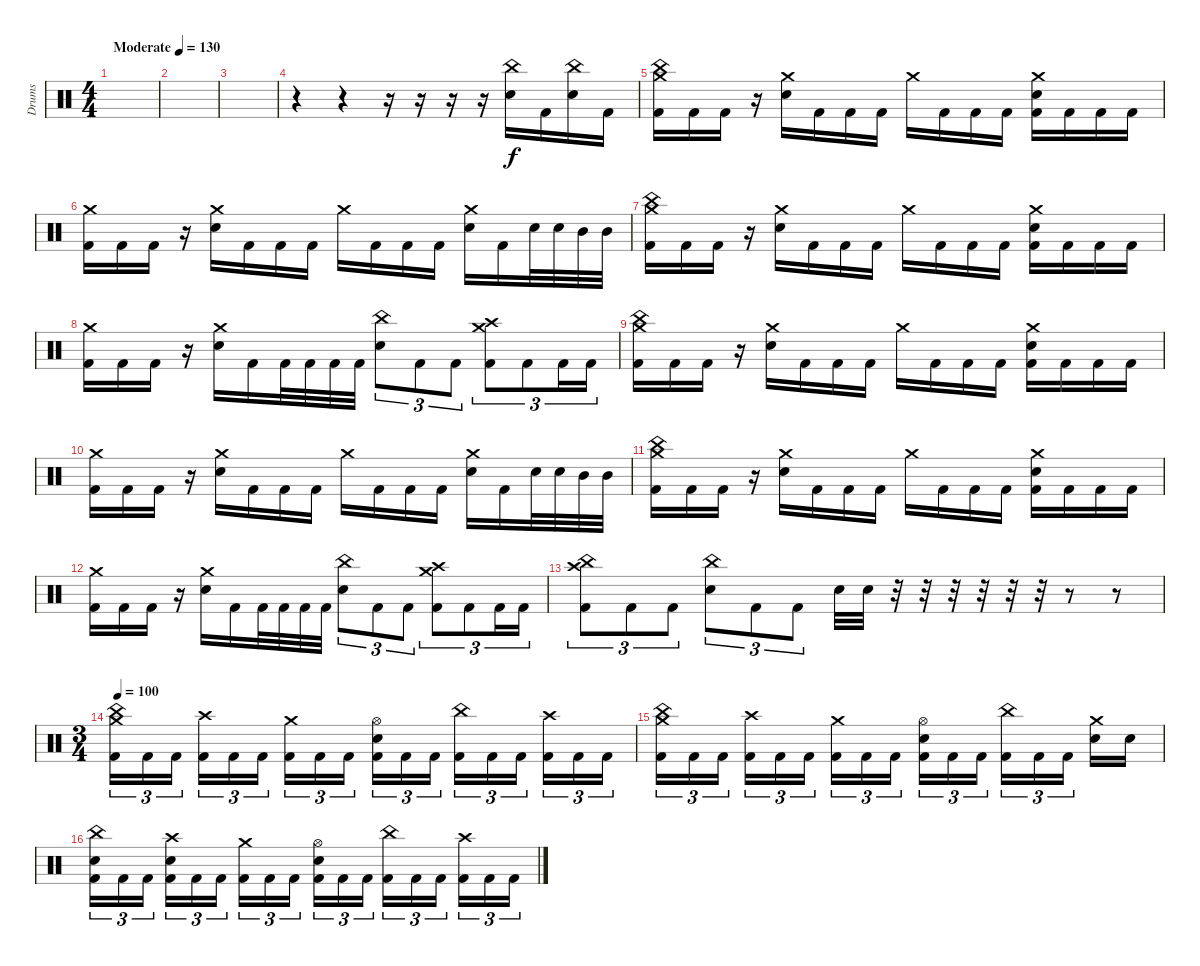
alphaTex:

\track ("Drums" "Drums") {instrument percussion}
\staff {score}
\articulation defaults
\ts (4 4)
\tempo (130 "Moderate")
\clef neutral
\ks c
|
|
|
r.4 r.4 r.16 r.16 r.16 r.16 ("China (hit)" "Electric Snare (hit)").16 "Kick (hit) 2".16 ("China (hit)" "Electric Snare (hit)").16 "Kick (hit) 2".16 |
("Crash medium (hit)" "China (hit)" "Kick (hit) 2").16 "Kick (hit) 2".16 "Kick (hit) 2".16 r.16 ("Crash medium (hit)" "Electric Snare (hit)").16 "Kick (hit) 2".16 "Kick (hit) 2".16 "Kick (hit) 2".16 "Crash medium (hit)".16 "Kick (hit) 2".16 "Kick (hit) 2".16 "Kick (hit) 2".16 ("Crash medium (hit)" "Electric Snare (hit)" "Kick (hit) 2").16 "Kick (hit) 2".16 "Kick (hit) 2".16 "Kick (hit) 2".16 |
("Crash medium (hit)" "Kick (hit) 2").16 "Kick (hit) 2".16 "Kick (hit) 2".16 r.16 ("Crash medium (hit)" "Electric Snare (hit)").16 "Kick (hit) 2".16 "Kick (hit) 2".16 "Kick (hit) 2".16 "Crash medium (hit)".16 "Kick (hit) 2".16 "Kick (hit) 2".16 "Kick (hit) 2".16 ("Crash medium (hit)" "Electric Snare (hit)").16 "Kick (hit) 2".16 "Electric Snare (hit)".32 "Electric Snare (hit)".32 "Mid Tom (hit)".32 "Mid Tom (hit)".32 |
("Crash medium (hit)" "China (hit)" "Kick (hit) 2").16 "Kick (hit) 2".16 "Kick (hit) 2".16 r.16 ("Crash medium (hit)" "Electric Snare (hit)").16 "Kick (hit) 2".16 "Kick (hit) 2".16 "Kick (hit) 2".16 "Crash medium (hit)".16 "Kick (hit) 2".16 "Kick (hit) 2".16 "Kick (hit) 2".16 ("Crash medium (hit)" "Electric Snare (hit)" "Kick (hit) 2").16 "Kick (hit) 2".16 "Kick (hit) 2".16 "Kick (hit) 2".16 |
("Crash medium (hit)" "Kick (hit) 2").16 "Kick (hit) 2".16 "Kick (hit) 2".16 r.16 ("Crash medium (hit)" "Electric Snare (hit)").16 "Kick (hit) 2".16 "Kick (hit) 2".32 "Kick (hit) 2".32 "Kick (hit) 2".32 "Kick (hit) 2".32 ("China (hit)" "Electric Snare (hit)").8{tu (3 2)} "Kick (hit) 2".8{tu (3 2)} "Kick (hit) 2".8{tu (3 2)} ("Crash medium (hit)" "Crash high (hit)" "Kick (hit) 2").8{tu (3 2)} "Kick (hit) 2".8{tu (3 2)} "Kick (hit) 2".16{tu (3 2)} "Kick (hit) 2".16{tu (3 2)} |
("Crash medium (hit)" "China (hit)" "Kick (hit) 2").16 "Kick (hit) 2".16 "Kick (hit) 2".16 r.16 ("Crash medium (hit)" "Electric Snare (hit)").16 "Kick (hit) 2".16 "Kick (hit) 2".16 "Kick (hit) 2".16 "Crash medium (hit)".16 "Kick (hit) 2".16 "Kick (hit) 2".16 "Kick (hit) 2".16 ("Crash medium (hit)" "Electric Snare (hit)" "Kick (hit) 2").16 "Kick (hit) 2".16 "Kick (hit) 2".16 "Kick (hit) 2".16 |
("Crash medium (hit)" "Kick (hit) 2").16 "Kick (hit) 2".16 "Kick (hit) 2".16 r.16 ("Crash medium (hit)" "Electric Snare (hit)").16 "Kick (hit) 2".16 "Kick (hit) 2".16 "Kick (hit) 2".16 "Crash medium (hit)".16 "Kick (hit) 2".16 "Kick (hit) 2".16 "Kick (hit) 2".16 ("Crash medium (hit)" "Electric Snare (hit)").16 "Kick (hit) 2".16 "Electric Snare (hit)".32 "Electric Snare (hit)".32 "Mid Tom (hit)".32 "Mid Tom (hit)".32 |
("Crash medium (hit)" "China (hit)" "Kick (hit) 2").16 "Kick (hit) 2".16 "Kick (hit) 2".16 r.16 ("Crash medium (hit)" "Electric Snare (hit)").16 "Kick (hit) 2".16 "Kick (hit) 2".16 "Kick (hit) 2".16 "Crash medium (hit)".16 "Kick (hit) 2".16 "Kick (hit) 2".16 "Kick (hit) 2".16 ("Crash medium (hit)" "Electric Snare (hit)" "Kick (hit) 2").16 "Kick (hit) 2".16 "Kick (hit) 2".16 "Kick (hit) 2".16 |
("Crash medium (hit)" "Kick (hit) 2").16 "Kick (hit) 2".16 "Kick (hit) 2".16 r.16 ("Crash medium (hit)" "Electric Snare (hit)").16 "Kick (hit) 2".16 "Kick (hit) 2".32 "Kick (hit) 2".32 "Kick (hit) 2".32 "Kick (hit) 2".32 ("China (hit)" "Electric Snare (hit)").8{tu (3 2)} "Kick (hit) 2".8{tu (3 2)} "Kick (hit) 2".8{tu (3 2)} ("Crash medium (hit)" "Crash high (hit)" "Kick (hit) 2").8{tu (3 2)} "Kick (hit) 2".8{tu (3 2)} "Kick (hit) 2".16{tu (3 2)} "Kick (hit) 2".16{tu (3 2)} |
("China (hit)" "Crash high (hit)" "Kick (hit) 2").8{tu (3 2)} "Kick (hit) 2".8{tu (3 2)} "Kick (hit) 2".8{tu (3 2)} ("China (hit)" "Electric Snare (hit)").8{tu (3 2)} "Kick (hit) 2".8{tu (3 2)} "Kick (hit) 2".8{tu (3 2)} "Electric Snare (hit)".32 "Electric Snare (hit)".32 r.32 r.32 r.32 r.32 r.32 r.32 r.8 r.8 |
\ts (3 4)
\tempo 100
("Crash medium (hit)" "China (hit)" "Kick (hit) 2").16{tu (3 2)} "Kick (hit) 2".16{tu (3 2)} "Kick (hit) 2".16{tu (3 2) beam splitsecondary} ("Crash high (hit)" "Kick (hit) 2").16{tu (3 2)} "Kick (hit) 2".16{tu (3 2)} "Kick (hit) 2".16{tu (3 2)} ("Crash medium (hit)" "Kick (hit) 2").16{tu (3 2)} "Kick (hit) 2".16{tu (3 2)} "Kick (hit) 2".16{tu (3 2) beam splitsecondary} ("Hi-Hat (open)" "Electric Snare (hit)" "Kick (hit) 2").16{tu (3 2)} "Kick (hit) 2".16{tu (3 2)} "Kick (hit) 2".16{tu (3 2)} ("China (hit)" "Kick (hit) 2").16{tu (3 2)} "Kick (hit) 2".16{tu (3 2)} "Kick (hit) 2".16{tu (3 2) beam splitsecondary} ("Crash high (hit)" "Kick (hit) 2").16{tu (3 2)} "Kick (hit) 2".16{tu (3 2)} "Kick (hit) 2".16{tu (3 2)} |
("Crash medium (hit)" "China (hit)" "Kick (hit) 2").16{tu (3 2)} "Kick (hit) 2".16{tu (3 2)} "Kick (hit) 2".16{tu (3 2) beam splitsecondary} ("Crash high (hit)" "Kick (hit) 2").16{tu (3 2)} "Kick (hit) 2".16{tu (3 2)} "Kick (hit) 2".16{tu (3 2)} ("Crash medium (hit)" "Kick (hit) 2").16{tu (3 2)} "Kick (hit) 2".16{tu (3 2)} "Kick (hit) 2".16{tu (3 2) beam splitsecondary} ("Hi-Hat (open)" "Electric Snare (hit)" "Kick (hit) 2").16{tu (3 2)} "Kick (hit) 2".16{tu (3 2)} "Kick (hit) 2".16{tu (3 2)} ("China (hit)" "Kick (hit) 2").16{tu (3 2)} "Kick (hit) 2".16{tu (3 2)} "Kick (hit) 2".16{tu (3 2) beam splitsecondary} ("Crash medium (hit)" "Electric Snare (hit)").16 "Electric Snare (hit)".16 |
("Electric Snare (hit)" "China (hit)" "Kick (hit) 2").16{tu (3 2)} "Kick (hit) 2".16{tu (3 2)} "Kick (hit) 2".16{tu (3 2) beam splitsecondary} ("Crash high (hit)" "Electric Snare (hit)" "Kick (hit) 2").16{tu (3 2)} "Kick (hit) 2".16{tu (3 2)} "Kick (hit) 2".16{tu (3 2)} ("Crash medium (hit)" "Kick (hit) 2").16{tu (3 2)} "Kick (hit) 2".16{tu (3 2)} "Kick (hit) 2".16{tu (3 2) beam splitsecondary} ("Hi-Hat (open)" "Electric Snare (hit)" "Kick (hit) 2").16{tu (3 2)} "Kick (hit) 2".16{tu (3 2)} "Kick (hit) 2".16{tu (3 2)} ("China (hit)" "Kick (hit) 2").16{tu (3 2)} "Kick (hit) 2".16{tu (3 2)} "Kick (hit) 2".16{tu (3 2) beam splitsecondary} ("Crash high (hit)" "Kick (hit) 2").16{tu (3 2)} "Kick (hit) 2".16{tu (3 2)} "Kick (hit) 2".16{tu (3 2)}
